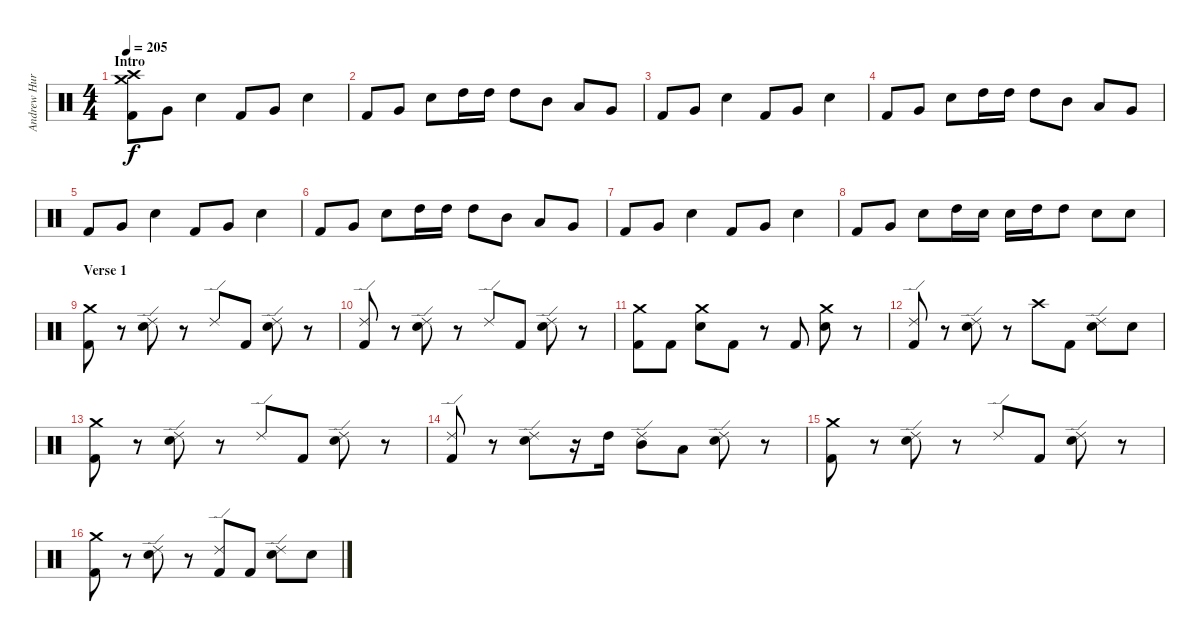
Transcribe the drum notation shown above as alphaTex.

\track ("Andrew Hurley (Drums)" "Andrew Hur") {instrument percussion}
\staff {score}
\articulation defaults
\ts (4 4)
\section ("" "Intro")
\tempo 205
\clef neutral
\ks c
("Crash high (hit)" "Crash medium (hit)" "Kick (hit) 2").8{dy f} "Very Low Tom (hit)".8 "Electric Snare (hit)".4 "Kick (hit) 2".8 "Very Low Tom (hit)".8 "Electric Snare (hit)".4 |
"Kick (hit) 2".8 "Very Low Tom (hit)".8 "Electric Snare (hit)".8 "High Tom (hit)".16 "High Tom (hit)".16 "High Tom (hit)".8 "Mid Tom (hit)".8 "Low Tom (hit)".8 "Very Low Tom (hit)".8 |
"Kick (hit) 2".8 "Very Low Tom (hit)".8 "Electric Snare (hit)".4 "Kick (hit) 2".8 "Very Low Tom (hit)".8 "Electric Snare (hit)".4 |
"Kick (hit) 2".8 "Very Low Tom (hit)".8 "Electric Snare (hit)".8 "High Tom (hit)".16 "High Tom (hit)".16 "High Tom (hit)".8 "Mid Tom (hit)".8 "Low Tom (hit)".8 "Very Low Tom (hit)".8 |
"Kick (hit) 2".8 "Very Low Tom (hit)".8 "Electric Snare (hit)".4 "Kick (hit) 2".8 "Very Low Tom (hit)".8 "Electric Snare (hit)".4 |
"Kick (hit) 2".8 "Very Low Tom (hit)".8 "Electric Snare (hit)".8 "High Tom (hit)".16 "High Tom (hit)".16 "High Tom (hit)".8 "Mid Tom (hit)".8 "Low Tom (hit)".8 "Very Low Tom (hit)".8 |
"Kick (hit) 2".8 "Very Low Tom (hit)".8 "Electric Snare (hit)".4 "Kick (hit) 2".8 "Very Low Tom (hit)".8 "Electric Snare (hit)".4 |
"Kick (hit) 2".8 "Very Low Tom (hit)".8 "Electric Snare (hit)".8 "High Tom (hit)".16 "Electric Snare (hit)".16 "Electric Snare (hit)".16 "High Tom (hit)".16 "High Tom (hit)".8 "Electric Snare (hit)".8 "Electric Snare (hit)".8 |
\section ("" "Verse 1")
("Crash medium (hit)" "Kick (hit) 2").8 r.8 ("Ride (edge) 2" "Electric Snare (hit)").8 r.8 "Ride (edge) 2".8 "Kick (hit) 2".8 ("Ride (edge) 2" "Electric Snare (hit)").8 r.8 |
("Ride (edge) 2" "Kick (hit) 2").8 r.8 ("Ride (edge) 2" "Electric Snare (hit)").8 r.8 "Ride (edge) 2".8 "Kick (hit) 2".8 ("Ride (edge) 2" "Electric Snare (hit)").8 r.8 |
("Crash medium (hit)" "Kick (hit) 2").8 "Kick (hit) 2".8 ("Crash medium (hit)" "Electric Snare (hit)").8 "Kick (hit) 2".8 r.8 "Kick (hit) 2".8 ("Crash medium (hit)" "Electric Snare (hit)").8 r.8 |
("Ride (edge) 2" "Kick (hit) 2").8 r.8 ("Ride (edge) 2" "Electric Snare (hit)").8 r.8 "Crash high (hit)".8 "Kick (hit) 2".8 ("Ride (edge) 2" "Electric Snare (hit)").8 "Electric Snare (hit)".8 |
("Crash medium (hit)" "Kick (hit) 2").8 r.8 ("Ride (edge) 2" "Electric Snare (hit)").8 r.8 "Ride (edge) 2".8 "Kick (hit) 2".8 ("Ride (edge) 2" "Electric Snare (hit)").8 r.8 |
("Ride (edge) 2" "Kick (hit) 2").8 r.8 ("Ride (edge) 2" "Electric Snare (hit)").8 r.16 "High Tom (hit)".16 ("Ride (edge) 2" "Mid Tom (hit)").8 "Low Tom (hit)".8 ("Ride (edge) 2" "Electric Snare (hit)").8 r.8 |
("Crash medium (hit)" "Kick (hit) 2").8 r.8 ("Ride (edge) 2" "Electric Snare (hit)").8 r.8 "Ride (edge) 2".8 "Kick (hit) 2".8 ("Ride (edge) 2" "Electric Snare (hit)").8 r.8 |
("Crash medium (hit)" "Kick (hit) 2").8 r.8 ("Ride (edge) 2" "Electric Snare (hit)").8 r.8 ("Ride (edge) 2" "Kick (hit) 2").8 "Kick (hit) 2".8 ("Ride (edge) 2" "Electric Snare (hit)").8 "Electric Snare (hit)".8
